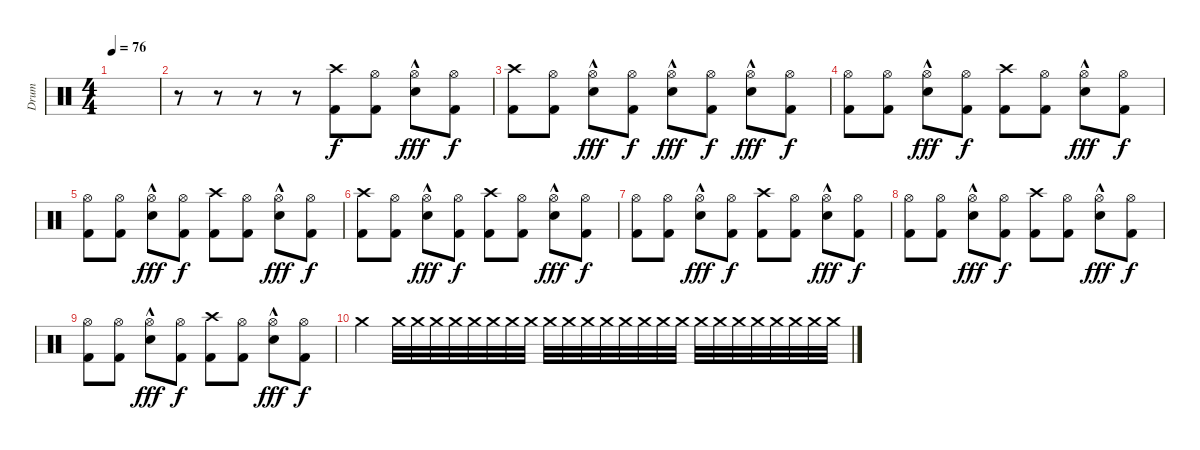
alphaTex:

\track ("Drum" "Drum") {instrument percussion}
\staff {score}
\articulation defaults
\ts (4 4)
\tempo 76
\clef neutral
\ks c
|
r.8 r.8 r.8 r.8{volume 13} ("Crash high (hit)" "Kick (hit) 2").8 ("Hi-Hat (open)" "Kick (hit) 2").8 ("Hi-Hat (open)" "Electric Snare (hit)"{hac}).8{dy fff} ("Hi-Hat (open)" "Kick (hit) 2").8{dy f} |
("Crash high (hit)" "Kick (hit) 2").8 ("Hi-Hat (open)" "Kick (hit) 2").8 ("Hi-Hat (open)" "Electric Snare (hit)"{hac}).8{dy fff} ("Hi-Hat (open)" "Kick (hit) 2").8{dy f} ("Hi-Hat (open)" "Electric Snare (hit)"{hac}).8{dy fff} ("Hi-Hat (open)" "Kick (hit) 2").8{dy f} ("Hi-Hat (open)" "Electric Snare (hit)"{hac}).8{dy fff} ("Hi-Hat (open)" "Kick (hit) 2").8{dy f} |
("Hi-Hat (open)" "Kick (hit) 2").8 ("Hi-Hat (open)" "Kick (hit) 2").8 ("Hi-Hat (open)" "Electric Snare (hit)"{hac}).8{dy fff} ("Hi-Hat (open)" "Kick (hit) 2").8{dy f} ("Crash high (hit)" "Kick (hit) 2").8 ("Hi-Hat (open)" "Kick (hit) 2").8 ("Hi-Hat (open)" "Electric Snare (hit)"{hac}).8{dy fff} ("Hi-Hat (open)" "Kick (hit) 2").8{dy f} |
("Hi-Hat (open)" "Kick (hit) 2").8 ("Hi-Hat (open)" "Kick (hit) 2").8 ("Hi-Hat (open)" "Electric Snare (hit)"{hac}).8{dy fff} ("Hi-Hat (open)" "Kick (hit) 2").8{dy f} ("Crash high (hit)" "Kick (hit) 2").8 ("Hi-Hat (open)" "Kick (hit) 2").8 ("Hi-Hat (open)" "Electric Snare (hit)"{hac}).8{dy fff} ("Hi-Hat (open)" "Kick (hit) 2").8{dy f} |
("Crash high (hit)" "Kick (hit) 2").8 ("Hi-Hat (open)" "Kick (hit) 2").8 ("Hi-Hat (open)" "Electric Snare (hit)"{hac}).8{dy fff} ("Hi-Hat (open)" "Kick (hit) 2").8{dy f} ("Crash high (hit)" "Kick (hit) 2").8 ("Hi-Hat (open)" "Kick (hit) 2").8 ("Hi-Hat (open)" "Electric Snare (hit)"{hac}).8{dy fff} ("Hi-Hat (open)" "Kick (hit) 2").8{dy f} |
("Hi-Hat (open)" "Kick (hit) 2").8 ("Hi-Hat (open)" "Kick (hit) 2").8 ("Hi-Hat (open)" "Electric Snare (hit)"{hac}).8{dy fff} ("Hi-Hat (open)" "Kick (hit) 2").8{dy f} ("Crash high (hit)" "Kick (hit) 2").8 ("Hi-Hat (open)" "Kick (hit) 2").8 ("Hi-Hat (open)" "Electric Snare (hit)"{hac}).8{dy fff} ("Hi-Hat (open)" "Kick (hit) 2").8{dy f} |
("Hi-Hat (open)" "Kick (hit) 2").8 ("Hi-Hat (open)" "Kick (hit) 2").8 ("Hi-Hat (open)" "Electric Snare (hit)"{hac}).8{dy fff} ("Hi-Hat (open)" "Kick (hit) 2").8{dy f} ("Crash high (hit)" "Kick (hit) 2").8 ("Hi-Hat (open)" "Kick (hit) 2").8 ("Hi-Hat (open)" "Electric Snare (hit)"{hac}).8{dy fff} ("Hi-Hat (open)" "Kick (hit) 2").8{dy f} |
("Hi-Hat (open)" "Kick (hit) 2").8 ("Hi-Hat (open)" "Kick (hit) 2").8 ("Hi-Hat (open)" "Electric Snare (hit)"{hac}).8{dy fff} ("Hi-Hat (open)" "Kick (hit) 2").8{dy f} ("Crash high (hit)" "Kick (hit) 2").8 ("Hi-Hat (open)" "Kick (hit) 2").8 ("Hi-Hat (open)" "Electric Snare (hit)"{hac}).8{dy fff} ("Hi-Hat (open)" "Kick (hit) 2").8{dy f} |
"Crash medium (hit)".4 "Crash medium (hit)".32{volume 4} "Crash medium (hit)".32 "Crash medium (hit)".32 "Crash medium (hit)".32 "Crash medium (hit)".32 "Crash medium (hit)".32 "Crash medium (hit)".32 "Crash medium (hit)".32 "Crash medium (hit)".32 "Crash medium (hit)".32 "Crash medium (hit)".32 "Crash medium (hit)".32 "Crash medium (hit)".32 "Crash medium (hit)".32 "Crash medium (hit)".32 "Crash medium (hit)".32 "Crash medium (hit)".32 "Crash medium (hit)".32 "Crash medium (hit)".32 "Crash medium (hit)".32 "Crash medium (hit)".32 "Crash medium (hit)".32 "Crash medium (hit)".32 "Crash medium (hit)".32
